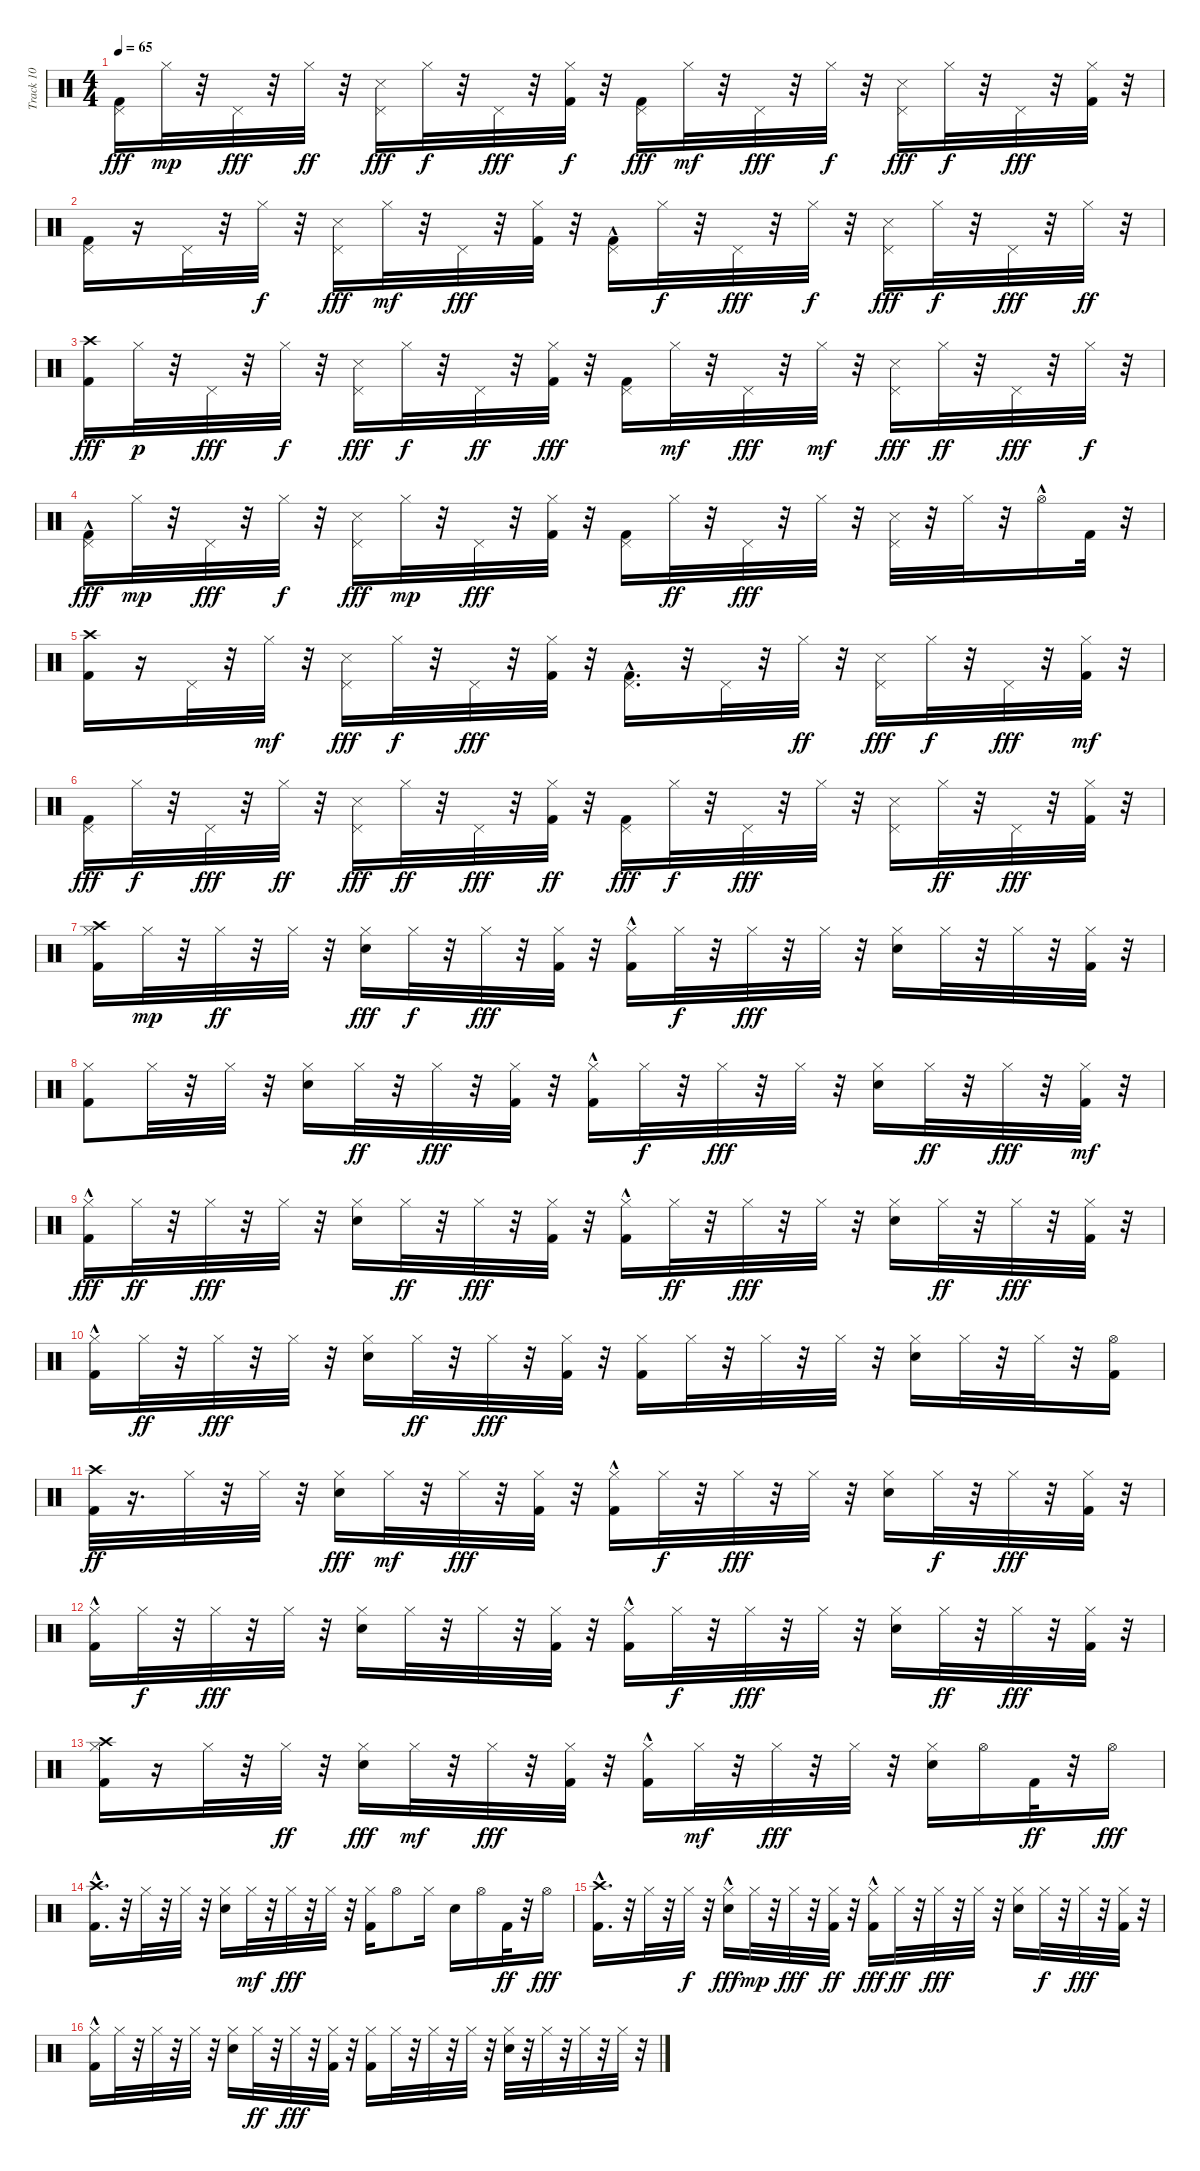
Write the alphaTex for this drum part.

\track ("Track 10" "Track 10") {instrument percussion}
\staff {score}
\articulation defaults
\ts (4 4)
\tempo 65
\clef neutral
\ks c
("Kick (hit) 2" "Pedal Hi-Hat (hit)").16{dy fff} "Hi-Hat (closed)".32{dy mp} r.32 "Pedal Hi-Hat (hit)".32{dy fff} r.32 "Hi-Hat (closed)".32{dy ff} r.32 ("Snare (side stick) 3" "Pedal Hi-Hat (hit)").16{dy fff} "Hi-Hat (closed)".32{dy f} r.32 "Pedal Hi-Hat (hit)".32{dy fff} r.32 ("Kick (hit) 2" "Hi-Hat (closed)").32{dy f} r.32 ("Kick (hit) 2" "Pedal Hi-Hat (hit)").16{dy fff} "Hi-Hat (closed)".32{dy mf} r.32 "Pedal Hi-Hat (hit)".32{dy fff} r.32 "Hi-Hat (closed)".32{dy f} r.32 ("Snare (side stick) 3" "Pedal Hi-Hat (hit)").16{dy fff} "Hi-Hat (closed)".32{dy f} r.32 "Pedal Hi-Hat (hit)".32{dy fff} r.32 ("Kick (hit) 2" "Hi-Hat (closed)").32 r.32 |
("Kick (hit) 2" "Pedal Hi-Hat (hit)").16 r.16 "Pedal Hi-Hat (hit)".32 r.32 "Hi-Hat (closed)".32{dy f} r.32 ("Snare (side stick) 3" "Pedal Hi-Hat (hit)").16{dy fff} "Hi-Hat (closed)".32{dy mf} r.32 "Pedal Hi-Hat (hit)".32{dy fff} r.32 ("Kick (hit) 2" "Hi-Hat (closed)").32 r.32 ("Kick (hit) 2"{hac} "Pedal Hi-Hat (hit)").16 "Hi-Hat (closed)".32{dy f} r.32 "Pedal Hi-Hat (hit)".32{dy fff} r.32 "Hi-Hat (closed)".32{dy f} r.32 ("Snare (side stick) 3" "Pedal Hi-Hat (hit)").16{dy fff} "Hi-Hat (closed)".32{dy f} r.32 "Pedal Hi-Hat (hit)".32{dy fff} r.32 "Hi-Hat (closed)".32{dy ff} r.32 |
("Kick (hit) 2" "Crash high (hit)").16{dy fff} "Hi-Hat (closed)".32{dy p} r.32 "Pedal Hi-Hat (hit)".32{dy fff} r.32 "Hi-Hat (closed)".32{dy f} r.32 ("Snare (side stick) 3" "Pedal Hi-Hat (hit)").16{dy fff} "Hi-Hat (closed)".32{dy f} r.32 "Pedal Hi-Hat (hit)".32{dy ff} r.32 ("Kick (hit) 2" "Hi-Hat (closed)").32{dy fff} r.32 ("Pedal Hi-Hat (hit)" "Kick (hit) 2").16 "Hi-Hat (closed)".32{dy mf} r.32 "Pedal Hi-Hat (hit)".32{dy fff} r.32 "Hi-Hat (closed)".32{dy mf} r.32 ("Snare (side stick) 3" "Pedal Hi-Hat (hit)").16{dy fff} "Hi-Hat (closed)".32{dy ff} r.32 "Pedal Hi-Hat (hit)".32{dy fff} r.32 "Hi-Hat (closed)".32{dy f} r.32 |
("Kick (hit) 2"{hac} "Pedal Hi-Hat (hit)").16{dy fff} "Hi-Hat (closed)".32{dy mp} r.32 "Pedal Hi-Hat (hit)".32{dy fff} r.32 "Hi-Hat (closed)".32{dy f} r.32 ("Snare (side stick) 3" "Pedal Hi-Hat (hit)").16{dy fff} "Hi-Hat (closed)".32{dy mp} r.32 "Pedal Hi-Hat (hit)".32{dy fff} r.32 ("Kick (hit) 2" "Hi-Hat (closed)").32 r.32 ("Pedal Hi-Hat (hit)" "Kick (hit) 2").16 "Hi-Hat (closed)".32{dy ff} r.32 "Pedal Hi-Hat (hit)".32{dy fff} r.32 "Hi-Hat (closed)".32 r.32 ("Snare (side stick) 3" "Pedal Hi-Hat (hit)").32 r.32 "Hi-Hat (closed)".32 r.32 "Hi-Hat (open)"{hac}.16 "Kick (hit) 2".32 r.32 |
("Kick (hit) 2" "Crash high (hit)").16 r.16 "Pedal Hi-Hat (hit)".32 r.32 "Hi-Hat (closed)".32{dy mf} r.32 ("Snare (side stick) 3" "Pedal Hi-Hat (hit)").16{dy fff} "Hi-Hat (closed)".32{dy f} r.32 "Pedal Hi-Hat (hit)".32{dy fff} r.32 ("Kick (hit) 2" "Hi-Hat (closed)").32 r.32 ("Kick (hit) 2"{hac} "Pedal Hi-Hat (hit)").16{d} r.32 "Pedal Hi-Hat (hit)".32 r.32 "Hi-Hat (closed)".32{dy ff} r.32 ("Snare (side stick) 3" "Pedal Hi-Hat (hit)").16{dy fff} "Hi-Hat (closed)".32{dy f} r.32 "Pedal Hi-Hat (hit)".32{dy fff} r.32 ("Hi-Hat (closed)" "Kick (hit) 2").32{dy mf} r.32 |
("Kick (hit) 2" "Pedal Hi-Hat (hit)").16{dy fff} "Hi-Hat (closed)".32{dy f} r.32 "Pedal Hi-Hat (hit)".32{dy fff} r.32 "Hi-Hat (closed)".32{dy ff} r.32 ("Snare (side stick) 3" "Pedal Hi-Hat (hit)").16{dy fff} "Hi-Hat (closed)".32{dy ff} r.32 "Pedal Hi-Hat (hit)".32{dy fff} r.32 ("Kick (hit) 2" "Hi-Hat (closed)").32{dy ff} r.32 ("Kick (hit) 2" "Pedal Hi-Hat (hit)").16{dy fff} "Hi-Hat (closed)".32{dy f} r.32 "Pedal Hi-Hat (hit)".32{dy fff} r.32 "Hi-Hat (closed)".32 r.32 ("Snare (side stick) 3" "Pedal Hi-Hat (hit)").16 "Hi-Hat (closed)".32{dy ff} r.32 "Pedal Hi-Hat (hit)".32{dy fff} r.32 ("Hi-Hat (closed)" "Kick (hit) 2").32 r.32 |
("Kick (hit) 2" "Crash high (hit)" "Hi-Hat (closed)").16 "Hi-Hat (closed)".32{dy mp} r.32 "Hi-Hat (closed)".32{dy ff} r.32 "Hi-Hat (closed)".32 r.32 ("Electric Snare (hit)" "Hi-Hat (closed)").16{dy fff} "Hi-Hat (closed)".32{dy f} r.32 "Hi-Hat (closed)".32{dy fff} r.32 ("Kick (hit) 2" "Hi-Hat (closed)").32 r.32 ("Kick (hit) 2"{hac} "Hi-Hat (closed)").16 "Hi-Hat (closed)".32{dy f} r.32 "Hi-Hat (closed)".32{dy fff} r.32 "Hi-Hat (closed)".32 r.32 ("Hi-Hat (closed)" "Electric Snare (hit)").16 "Hi-Hat (closed)".32 r.32 "Hi-Hat (closed)".32 r.32 ("Hi-Hat (closed)" "Kick (hit) 2").32 r.32 |
("Kick (hit) 2" "Hi-Hat (closed)").8 "Hi-Hat (closed)".32 r.32 "Hi-Hat (closed)".32 r.32 ("Electric Snare (hit)" "Hi-Hat (closed)").16 "Hi-Hat (closed)".32{dy ff} r.32 "Hi-Hat (closed)".32{dy fff} r.32 ("Kick (hit) 2" "Hi-Hat (closed)").32 r.32 ("Hi-Hat (closed)" "Kick (hit) 2"{hac}).16 "Hi-Hat (closed)".32{dy f} r.32 "Hi-Hat (closed)".32{dy fff} r.32 "Hi-Hat (closed)".32 r.32 ("Electric Snare (hit)" "Hi-Hat (closed)").16 "Hi-Hat (closed)".32{dy ff} r.32 "Hi-Hat (closed)".32{dy fff} r.32 ("Hi-Hat (closed)" "Kick (hit) 2").32{dy mf} r.32 |
("Kick (hit) 2"{hac} "Hi-Hat (closed)").16{dy fff} "Hi-Hat (closed)".32{dy ff} r.32 "Hi-Hat (closed)".32{dy fff} r.32 "Hi-Hat (closed)".32 r.32 ("Electric Snare (hit)" "Hi-Hat (closed)").16 "Hi-Hat (closed)".32{dy ff} r.32 "Hi-Hat (closed)".32{dy fff} r.32 ("Hi-Hat (closed)" "Kick (hit) 2").32 r.32 ("Kick (hit) 2"{hac} "Hi-Hat (closed)").16 "Hi-Hat (closed)".32{dy ff} r.32 "Hi-Hat (closed)".32{dy fff} r.32 "Hi-Hat (closed)".32 r.32 ("Electric Snare (hit)" "Hi-Hat (closed)").16 "Hi-Hat (closed)".32{dy ff} r.32 "Hi-Hat (closed)".32{dy fff} r.32 ("Hi-Hat (closed)" "Kick (hit) 2").32 r.32 |
("Kick (hit) 2"{hac} "Hi-Hat (closed)").16 "Hi-Hat (closed)".32{dy ff} r.32 "Hi-Hat (closed)".32{dy fff} r.32 "Hi-Hat (closed)".32 r.32 ("Electric Snare (hit)" "Hi-Hat (closed)").16 "Hi-Hat (closed)".32{dy ff} r.32 "Hi-Hat (closed)".32{dy fff} r.32 ("Kick (hit) 2" "Hi-Hat (closed)").32 r.32 ("Hi-Hat (closed)" "Kick (hit) 2").16 "Hi-Hat (closed)".32 r.32 "Hi-Hat (closed)".32 r.32 "Hi-Hat (closed)".32 r.32 ("Electric Snare (hit)" "Hi-Hat (closed)").16 "Hi-Hat (closed)".32 r.32 "Hi-Hat (closed)".32 r.32 ("Hi-Hat (open)" "Kick (hit) 2").16 |
("Kick (hit) 2" "Crash high (hit)").32{dy ff} r.16{d} "Hi-Hat (closed)".32 r.32 "Hi-Hat (closed)".32 r.32 ("Hi-Hat (closed)" "Electric Snare (hit)").16{dy fff} "Hi-Hat (closed)".32{dy mf} r.32 "Hi-Hat (closed)".32{dy fff} r.32 ("Kick (hit) 2" "Hi-Hat (closed)").32 r.32 ("Kick (hit) 2"{hac} "Hi-Hat (closed)").16 "Hi-Hat (closed)".32{dy f} r.32 "Hi-Hat (closed)".32{dy fff} r.32 "Hi-Hat (closed)".32 r.32 ("Electric Snare (hit)" "Hi-Hat (closed)").16 "Hi-Hat (closed)".32{dy f} r.32 "Hi-Hat (closed)".32{dy fff} r.32 ("Kick (hit) 2" "Hi-Hat (closed)").32 r.32 |
("Kick (hit) 2"{hac} "Hi-Hat (closed)").16 "Hi-Hat (closed)".32{dy f} r.32 "Hi-Hat (closed)".32{dy fff} r.32 "Hi-Hat (closed)".32 r.32 ("Electric Snare (hit)" "Hi-Hat (closed)").16 "Hi-Hat (closed)".32 r.32 "Hi-Hat (closed)".32 r.32 ("Hi-Hat (closed)" "Kick (hit) 2").32 r.32 ("Kick (hit) 2"{hac} "Hi-Hat (closed)").16 "Hi-Hat (closed)".32{dy f} r.32 "Hi-Hat (closed)".32{dy fff} r.32 "Hi-Hat (closed)".32 r.32 ("Electric Snare (hit)" "Hi-Hat (closed)").16 "Hi-Hat (closed)".32{dy ff} r.32 "Hi-Hat (closed)".32{dy fff} r.32 ("Kick (hit) 2" "Hi-Hat (closed)").32 r.32 |
("Crash high (hit)" "Kick (hit) 2" "Hi-Hat (closed)").16 r.16 "Hi-Hat (closed)".32 r.32 "Hi-Hat (closed)".32{dy ff} r.32 ("Electric Snare (hit)" "Hi-Hat (closed)").16{dy fff} "Hi-Hat (closed)".32{dy mf} r.32 "Hi-Hat (closed)".32{dy fff} r.32 ("Hi-Hat (closed)" "Kick (hit) 2").32 r.32 ("Kick (hit) 2"{hac} "Hi-Hat (closed)").16 "Hi-Hat (closed)".32{dy mf} r.32 "Hi-Hat (closed)".32{dy fff} r.32 "Hi-Hat (closed)".32 r.32 ("Hi-Hat (closed)" "Electric Snare (hit)").16 "Hi-Hat (open)".16 "Kick (hit) 2".32{dy ff} r.32 "Hi-Hat (open)".16{dy fff} |
("Crash high (hit)" "Kick (hit) 2"{hac}).16{d} r.32 "Hi-Hat (closed)".32 r.32 "Hi-Hat (closed)".32 r.32 ("Electric Snare (hit)" "Hi-Hat (closed)").16 "Hi-Hat (closed)".32{dy mf} r.32 "Hi-Hat (closed)".32{dy fff} r.32 "Hi-Hat (closed)".32 r.32 ("Kick (hit) 2" "Hi-Hat (closed)").16 "Hi-Hat (open)".8 "Hi-Hat (closed)".16 "Electric Snare (hit)".16 "Hi-Hat (open)".16 "Kick (hit) 2".32{dy ff} r.32 "Hi-Hat (open)".16{dy fff} |
("Kick (hit) 2"{hac} "Crash high (hit)").16{d} r.32 "Hi-Hat (closed)".32 r.32 "Hi-Hat (closed)".32{dy f} r.32 ("Electric Snare (hit)"{hac} "Hi-Hat (closed)").16{dy fff} "Hi-Hat (closed)".32{dy mp} r.32 "Hi-Hat (closed)".32{dy fff} r.32 ("Hi-Hat (closed)" "Kick (hit) 2").32{dy ff} r.32 ("Kick (hit) 2"{hac} "Hi-Hat (closed)").16{dy fff} "Hi-Hat (closed)".32{dy ff} r.32 "Hi-Hat (closed)".32{dy fff} r.32 "Hi-Hat (closed)".32 r.32 ("Electric Snare (hit)" "Hi-Hat (closed)").16 "Hi-Hat (closed)".32{dy f} r.32 "Hi-Hat (closed)".32{dy fff} r.32 ("Hi-Hat (closed)" "Kick (hit) 2").32 r.32 |
("Kick (hit) 2"{hac} "Hi-Hat (closed)").16 "Hi-Hat (closed)".32 r.32 "Hi-Hat (closed)".32 r.32 "Hi-Hat (closed)".32 r.32 ("Hi-Hat (closed)" "Electric Snare (hit)").16 "Hi-Hat (closed)".32{dy ff} r.32 "Hi-Hat (closed)".32{dy fff} r.32 ("Hi-Hat (closed)" "Kick (hit) 2").32 r.32 ("Kick (hit) 2" "Hi-Hat (closed)").16 "Hi-Hat (closed)".32 r.32 "Hi-Hat (closed)".32 r.32 "Hi-Hat (closed)".32 r.32 ("Electric Snare (hit)" "Hi-Hat (closed)").32 r.32 "Hi-Hat (closed)".32 r.32 "Hi-Hat (closed)".32 r.32 "Hi-Hat (closed)".32 r.32
